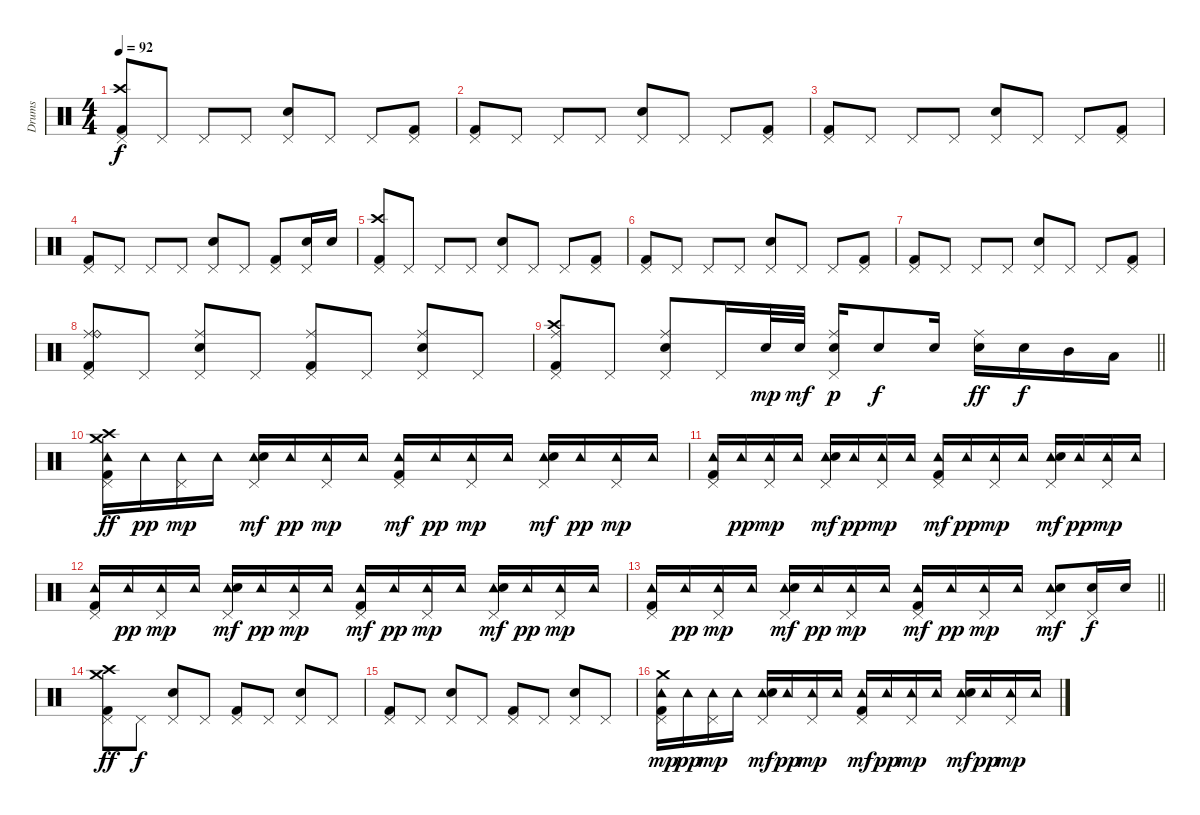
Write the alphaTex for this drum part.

\track ("Drums" "Drums") {instrument percussion}
\staff {score}
\articulation defaults
\ts (4 4)
\tempo 92
\clef neutral
\ks c
("Pedal Hi-Hat (hit)" "Crash high (hit)" "Kick (hit) 2").8{dy f} "Pedal Hi-Hat (hit)".8 "Pedal Hi-Hat (hit)".8 "Pedal Hi-Hat (hit)".8 ("Pedal Hi-Hat (hit)" "Electric Snare (hit)").8 "Pedal Hi-Hat (hit)".8 "Pedal Hi-Hat (hit)".8 ("Pedal Hi-Hat (hit)" "Kick (hit) 2").8 |
("Pedal Hi-Hat (hit)" "Kick (hit) 2").8 "Pedal Hi-Hat (hit)".8 "Pedal Hi-Hat (hit)".8 "Pedal Hi-Hat (hit)".8 ("Pedal Hi-Hat (hit)" "Electric Snare (hit)").8 "Pedal Hi-Hat (hit)".8 "Pedal Hi-Hat (hit)".8 ("Pedal Hi-Hat (hit)" "Kick (hit) 2").8 |
("Pedal Hi-Hat (hit)" "Kick (hit) 2").8 "Pedal Hi-Hat (hit)".8 "Pedal Hi-Hat (hit)".8 "Pedal Hi-Hat (hit)".8 ("Pedal Hi-Hat (hit)" "Electric Snare (hit)").8 "Pedal Hi-Hat (hit)".8 "Pedal Hi-Hat (hit)".8 ("Pedal Hi-Hat (hit)" "Kick (hit) 2").8 |
("Pedal Hi-Hat (hit)" "Kick (hit) 2").8 "Pedal Hi-Hat (hit)".8 "Pedal Hi-Hat (hit)".8 "Pedal Hi-Hat (hit)".8 ("Pedal Hi-Hat (hit)" "Electric Snare (hit)").8 "Pedal Hi-Hat (hit)".8 ("Pedal Hi-Hat (hit)" "Kick (hit) 2").8 ("Pedal Hi-Hat (hit)" "Electric Snare (hit)").16 "Electric Snare (hit)".16 |
("Pedal Hi-Hat (hit)" "Crash high (hit)" "Kick (hit) 2").8 "Pedal Hi-Hat (hit)".8 "Pedal Hi-Hat (hit)".8 "Pedal Hi-Hat (hit)".8 ("Pedal Hi-Hat (hit)" "Electric Snare (hit)").8 "Pedal Hi-Hat (hit)".8 "Pedal Hi-Hat (hit)".8 ("Pedal Hi-Hat (hit)" "Kick (hit) 2").8 |
("Pedal Hi-Hat (hit)" "Kick (hit) 2").8 "Pedal Hi-Hat (hit)".8 "Pedal Hi-Hat (hit)".8 "Pedal Hi-Hat (hit)".8 ("Pedal Hi-Hat (hit)" "Electric Snare (hit)").8 "Pedal Hi-Hat (hit)".8 "Pedal Hi-Hat (hit)".8 ("Pedal Hi-Hat (hit)" "Kick (hit) 2").8 |
("Pedal Hi-Hat (hit)" "Kick (hit) 2").8 "Pedal Hi-Hat (hit)".8 "Pedal Hi-Hat (hit)".8 "Pedal Hi-Hat (hit)".8 ("Pedal Hi-Hat (hit)" "Electric Snare (hit)").8 "Pedal Hi-Hat (hit)".8 "Pedal Hi-Hat (hit)".8 ("Pedal Hi-Hat (hit)" "Kick (hit) 2").8 |
("Pedal Hi-Hat (hit)" "Ride (middle)" "Ride (bell)" "Kick (hit) 2").8 "Pedal Hi-Hat (hit)".8 ("Pedal Hi-Hat (hit)" "Ride (middle)" "Electric Snare (hit)").8 "Pedal Hi-Hat (hit)".8 ("Pedal Hi-Hat (hit)" "Ride (middle)" "Kick (hit) 2").8 "Pedal Hi-Hat (hit)".8 ("Pedal Hi-Hat (hit)" "Ride (middle)" "Electric Snare (hit)").8 "Pedal Hi-Hat (hit)".8 |
\barLineRight lightlight
("Pedal Hi-Hat (hit)" "Ride (middle)" "Crash high (hit)" "Kick (hit) 2").8 "Pedal Hi-Hat (hit)".8 ("Pedal Hi-Hat (hit)" "Ride (middle)" "Electric Snare (hit)").8 "Pedal Hi-Hat (hit)".16 "Electric Snare (hit)".32{dy mp} "Electric Snare (hit)".32{dy mf} ("Pedal Hi-Hat (hit)" "Ride (middle)" "Electric Snare (hit)").16{dy p} "Electric Snare (hit)".8{dy f} "Electric Snare (hit)".16 ("Ride (middle)" "Electric Snare (hit)").16{dy ff} "Electric Snare (hit)".16{dy f} "Mid Tom (hit)".16 "Low Tom (hit)".16 |
("Pedal Hi-Hat (hit)" "Tambourine (hit)" "Crash medium (hit)" "Crash high (hit)" "Kick (hit) 2").16{dy ff} "Tambourine (hit)".16{dy pp} ("Pedal Hi-Hat (hit)" "Tambourine (hit)").16{dy mp} "Tambourine (hit)".16 ("Pedal Hi-Hat (hit)" "Tambourine (hit)" "Electric Snare (hit)").16{dy mf} "Tambourine (hit)".16{dy pp} ("Pedal Hi-Hat (hit)" "Tambourine (hit)").16{dy mp} "Tambourine (hit)".16 ("Pedal Hi-Hat (hit)" "Tambourine (hit)" "Kick (hit) 2").16{dy mf} "Tambourine (hit)".16{dy pp} ("Pedal Hi-Hat (hit)" "Tambourine (hit)").16{dy mp} "Tambourine (hit)".16 ("Pedal Hi-Hat (hit)" "Tambourine (hit)" "Electric Snare (hit)").16{dy mf} "Tambourine (hit)".16{dy pp} ("Pedal Hi-Hat (hit)" "Tambourine (hit)").16{dy mp} "Tambourine (hit)".16 |
("Pedal Hi-Hat (hit)" "Tambourine (hit)" "Kick (hit) 2").16 "Tambourine (hit)".16{dy pp} ("Pedal Hi-Hat (hit)" "Tambourine (hit)").16{dy mp} "Tambourine (hit)".16 ("Pedal Hi-Hat (hit)" "Tambourine (hit)" "Electric Snare (hit)").16{dy mf} "Tambourine (hit)".16{dy pp} ("Pedal Hi-Hat (hit)" "Tambourine (hit)").16{dy mp} "Tambourine (hit)".16 ("Pedal Hi-Hat (hit)" "Tambourine (hit)" "Kick (hit) 2").16{dy mf} "Tambourine (hit)".16{dy pp} ("Pedal Hi-Hat (hit)" "Tambourine (hit)").16{dy mp} "Tambourine (hit)".16 ("Pedal Hi-Hat (hit)" "Tambourine (hit)" "Electric Snare (hit)").16{dy mf} "Tambourine (hit)".16{dy pp} ("Pedal Hi-Hat (hit)" "Tambourine (hit)").16{dy mp} "Tambourine (hit)".16 |
("Pedal Hi-Hat (hit)" "Tambourine (hit)" "Kick (hit) 2").16 "Tambourine (hit)".16{dy pp} ("Pedal Hi-Hat (hit)" "Tambourine (hit)").16{dy mp} "Tambourine (hit)".16 ("Pedal Hi-Hat (hit)" "Tambourine (hit)" "Electric Snare (hit)").16{dy mf} "Tambourine (hit)".16{dy pp} ("Pedal Hi-Hat (hit)" "Tambourine (hit)").16{dy mp} "Tambourine (hit)".16 ("Pedal Hi-Hat (hit)" "Tambourine (hit)" "Kick (hit) 2").16{dy mf} "Tambourine (hit)".16{dy pp} ("Pedal Hi-Hat (hit)" "Tambourine (hit)").16{dy mp} "Tambourine (hit)".16 ("Pedal Hi-Hat (hit)" "Tambourine (hit)" "Electric Snare (hit)").16{dy mf} "Tambourine (hit)".16{dy pp} ("Pedal Hi-Hat (hit)" "Tambourine (hit)").16{dy mp} "Tambourine (hit)".16 |
\barLineRight lightlight
("Pedal Hi-Hat (hit)" "Tambourine (hit)" "Kick (hit) 2").16 "Tambourine (hit)".16{dy pp} ("Pedal Hi-Hat (hit)" "Tambourine (hit)").16{dy mp} "Tambourine (hit)".16 ("Pedal Hi-Hat (hit)" "Tambourine (hit)" "Electric Snare (hit)").16{dy mf} "Tambourine (hit)".16{dy pp} ("Pedal Hi-Hat (hit)" "Tambourine (hit)").16{dy mp} "Tambourine (hit)".16 ("Pedal Hi-Hat (hit)" "Tambourine (hit)" "Kick (hit) 2").16{dy mf} "Tambourine (hit)".16{dy pp} ("Pedal Hi-Hat (hit)" "Tambourine (hit)").16{dy mp} "Tambourine (hit)".16 ("Pedal Hi-Hat (hit)" "Tambourine (hit)" "Electric Snare (hit)").8{dy mf} ("Pedal Hi-Hat (hit)" "Electric Snare (hit)").16{dy f} "Electric Snare (hit)".16 |
("Pedal Hi-Hat (hit)" "Crash high (hit)" "Crash medium (hit)" "Kick (hit) 2").8{dy ff} "Pedal Hi-Hat (hit)".8{dy f} ("Pedal Hi-Hat (hit)" "Electric Snare (hit)").8 "Pedal Hi-Hat (hit)".8 ("Pedal Hi-Hat (hit)" "Kick (hit) 2").8 "Pedal Hi-Hat (hit)".8 ("Pedal Hi-Hat (hit)" "Electric Snare (hit)").8 "Pedal Hi-Hat (hit)".8 |
("Pedal Hi-Hat (hit)" "Kick (hit) 2").8 "Pedal Hi-Hat (hit)".8 ("Pedal Hi-Hat (hit)" "Electric Snare (hit)").8 "Pedal Hi-Hat (hit)".8 ("Pedal Hi-Hat (hit)" "Kick (hit) 2").8 "Pedal Hi-Hat (hit)".8 ("Pedal Hi-Hat (hit)" "Electric Snare (hit)").8 "Pedal Hi-Hat (hit)".8 |
("Pedal Hi-Hat (hit)" "Tambourine (hit)" "Crash medium (hit)" "Kick (hit) 2").16{dy mp} "Tambourine (hit)".16{dy pp} ("Pedal Hi-Hat (hit)" "Tambourine (hit)").16{dy mp} "Tambourine (hit)".16 ("Pedal Hi-Hat (hit)" "Tambourine (hit)" "Electric Snare (hit)").16{dy mf} "Tambourine (hit)".16{dy pp} ("Pedal Hi-Hat (hit)" "Tambourine (hit)").16{dy mp} "Tambourine (hit)".16 ("Pedal Hi-Hat (hit)" "Tambourine (hit)" "Kick (hit) 2").16{dy mf} "Tambourine (hit)".16{dy pp} ("Pedal Hi-Hat (hit)" "Tambourine (hit)").16{dy mp} "Tambourine (hit)".16 ("Pedal Hi-Hat (hit)" "Tambourine (hit)" "Electric Snare (hit)").16{dy mf} "Tambourine (hit)".16{dy pp} ("Pedal Hi-Hat (hit)" "Tambourine (hit)").16{dy mp} "Tambourine (hit)".16
